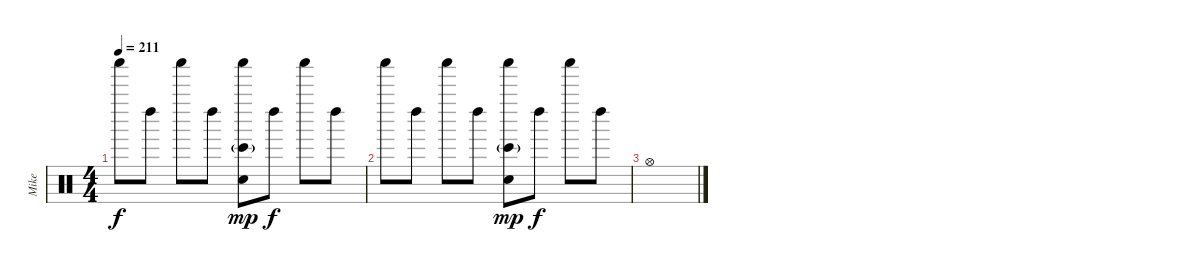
\track ("Mike" "Mike") {instrument percussion}
\staff {score}
\articulation defaults
\ts (4 4)
\tempo 211
\clef neutral
\ks c "Shaker (hit)".8{dy f} "Left Maraca (hit)".8 "Shaker (hit)".8 "Left Maraca (hit)".8
("Shaker (hit)" "Bongo High (hit)"{g} "Electric Snare (hit)").8{dy mp} "Left Maraca (hit)".8{dy f} "Shaker (hit)".8 "Left Maraca (hit)".8 |
"Shaker (hit)".8 "Left Maraca (hit)".8 "Shaker (hit)".8 "Left Maraca (hit)".8 ("Shaker (hit)" "Bongo High (hit)"{g} "Electric Snare (hit)").8{dy mp} "Left Maraca (hit)".8{dy f} "Shaker (hit)".8 "Left Maraca (hit)".8 |
"Hi-Hat (open)".1
